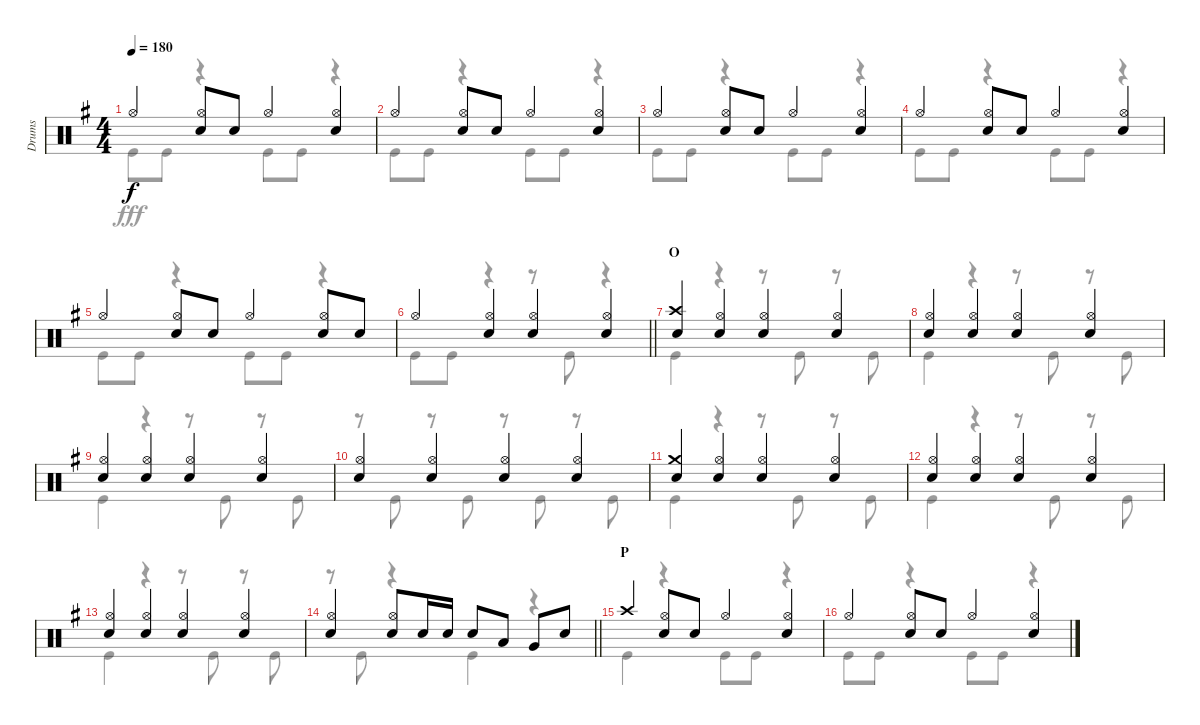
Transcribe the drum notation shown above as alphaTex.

\track ("Drums" "Drums") {instrument percussion}
\staff {score}
\articulation defaults
\voice
\ts (4 4)
\tempo 180
\clef neutral
\ks g "Hi-Hat (open)".4{dy f}
("Hi-Hat (open)" "Snare (hit) 2").8 "Snare (hit) 2".8 "Hi-Hat (open)".4 ("Hi-Hat (open)" "Snare (hit) 2").4 |
"Hi-Hat (open)".4 ("Hi-Hat (open)" "Snare (hit) 2").8 "Snare (hit) 2".8 "Hi-Hat (open)".4 ("Hi-Hat (open)" "Snare (hit) 2").4 |
"Hi-Hat (open)".4 ("Hi-Hat (open)" "Snare (hit) 2").8 "Snare (hit) 2".8 "Hi-Hat (open)".4 ("Hi-Hat (open)" "Snare (hit) 2").4 |
"Hi-Hat (open)".4 ("Hi-Hat (open)" "Snare (hit) 2").8 "Snare (hit) 2".8 "Hi-Hat (open)".4 ("Hi-Hat (open)" "Snare (hit) 2").4 |
"Hi-Hat (open)".4 ("Hi-Hat (open)" "Snare (hit) 2").8 "Snare (hit) 2".8 "Hi-Hat (open)".4 ("Hi-Hat (open)" "Snare (hit) 2").8 "Snare (hit) 2".8 |
\barLineRight lightlight "Hi-Hat (open)".4
("Hi-Hat (open)" "Snare (hit) 2").4 ("Hi-Hat (open)" "Snare (hit) 2").4 ("Hi-Hat (open)" "Snare (hit) 2").4 |
\section ("" "O")
("Crash high (hit)" "Snare (hit) 2").4 ("Hi-Hat (open)" "Snare (hit) 2").4 ("Hi-Hat (open)" "Snare (hit) 2").4 ("Hi-Hat (open)" "Snare (hit) 2").4 |
("Hi-Hat (open)" "Snare (hit) 2").4 ("Hi-Hat (open)" "Snare (hit) 2").4 ("Hi-Hat (open)" "Snare (hit) 2").4 ("Hi-Hat (open)" "Snare (hit) 2").4 |
("Hi-Hat (open)" "Snare (hit) 2").4 ("Hi-Hat (open)" "Snare (hit) 2").4 ("Hi-Hat (open)" "Snare (hit) 2").4 ("Hi-Hat (open)" "Snare (hit) 2").4 |
("Hi-Hat (open)" "Snare (hit) 2").4 ("Hi-Hat (open)" "Snare (hit) 2").4 ("Hi-Hat (open)" "Snare (hit) 2").4 ("Hi-Hat (open)" "Snare (hit) 2").4 |
("Crash medium (hit)" "Snare (hit) 2").4 ("Hi-Hat (open)" "Snare (hit) 2").4 ("Hi-Hat (open)" "Snare (hit) 2").4 ("Hi-Hat (open)" "Snare (hit) 2").4 |
("Hi-Hat (open)" "Snare (hit) 2").4 ("Hi-Hat (open)" "Snare (hit) 2").4 ("Hi-Hat (open)" "Snare (hit) 2").4 ("Hi-Hat (open)" "Snare (hit) 2").4 |
("Hi-Hat (open)" "Snare (hit) 2").4 ("Hi-Hat (open)" "Snare (hit) 2").4 ("Hi-Hat (open)" "Snare (hit) 2").4 ("Hi-Hat (open)" "Snare (hit) 2").4 |
\barLineRight lightlight
("Hi-Hat (open)" "Snare (hit) 2").4 ("Hi-Hat (open)" "Snare (hit) 2").8 "Snare (hit) 2".16 "Snare (hit) 2".16 "Snare (hit) 2".8 "Low Tom (hit)".8 "Very Low Tom (hit)".8 "Snare (hit) 2".8 |
\section ("" "P")
"Crash high (hit)".4 ("Hi-Hat (open)" "Snare (hit) 2").8 "Snare (hit) 2".8 "Hi-Hat (open)".4 ("Hi-Hat (open)" "Snare (hit) 2").4 |
"Hi-Hat (open)".4 ("Hi-Hat (open)" "Snare (hit) 2").8 "Snare (hit) 2".8 "Hi-Hat (open)".4 ("Hi-Hat (open)" "Snare (hit) 2").4
\voice
\clef neutral
\ottava regular
\simile none
\ks g "Kick (hit)".8{dy fff} "Kick (hit)".8
r.4 "Kick (hit)".8 "Kick (hit)".8 r.4 |
"Kick (hit)".8 "Kick (hit)".8 r.4 "Kick (hit)".8 "Kick (hit)".8 r.4 |
"Kick (hit)".8 "Kick (hit)".8 r.4 "Kick (hit)".8 "Kick (hit)".8 r.4 |
"Kick (hit)".8 "Kick (hit)".8 r.4 "Kick (hit)".8 "Kick (hit)".8 r.4 |
"Kick (hit)".8 "Kick (hit)".8 r.4 "Kick (hit)".8 "Kick (hit)".8 r.4 |
\barLineRight lightlight "Kick (hit)".8 "Kick (hit)".8
r.4 r.8 "Kick (hit)".8 r.4 |
"Kick (hit)".4 r.4 r.8 "Kick (hit)".8 r.8 "Kick (hit)".8 |
"Kick (hit)".4 r.4 r.8 "Kick (hit)".8 r.8 "Kick (hit)".8 |
"Kick (hit)".4 r.4 r.8 "Kick (hit)".8 r.8 "Kick (hit)".8 |
r.8 "Kick (hit)".8 r.8 "Kick (hit)".8 r.8 "Kick (hit)".8 r.8 "Kick (hit)".8 |
"Kick (hit)".4 r.4 r.8 "Kick (hit)".8 r.8 "Kick (hit)".8 |
"Kick (hit)".4 r.4 r.8 "Kick (hit)".8 r.8 "Kick (hit)".8 |
"Kick (hit)".4 r.4 r.8 "Kick (hit)".8 r.8 "Kick (hit)".8 |
\barLineRight lightlight
r.8 "Kick (hit)".8 r.4 "Kick (hit)".4 r.4 |
"Kick (hit)".4 r.4 "Kick (hit)".8 "Kick (hit)".8 r.4 |
"Kick (hit)".8 "Kick (hit)".8 r.4 "Kick (hit)".8 "Kick (hit)".8 r.4
